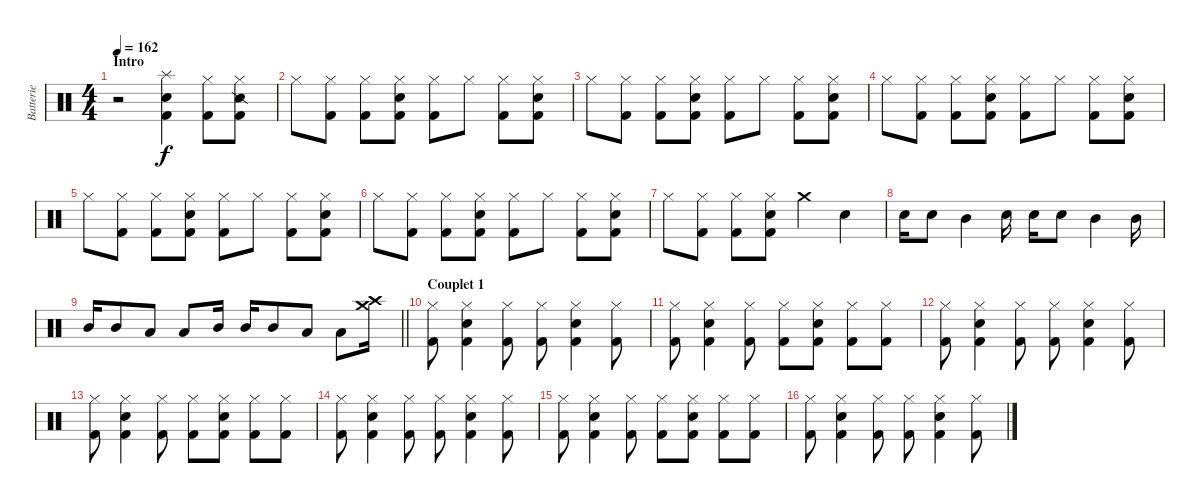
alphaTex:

\track ("Batterie" "Batterie") {instrument percussion}
\staff {score}
\articulation defaults
\ts (4 4)
\section ("" "Intro")
\tempo 162
\clef neutral
\ks c
r.2{dy f} ("Kick (hit) 2" "Snare (hit) 2" "Splash (hit)").4 ("Kick (hit) 2" "Hi-Hat (closed)").8 ("Kick (hit) 2" "Snare (side stick) 2" "Hi-Hat (closed)").8 |
"Hi-Hat (closed)".8 ("Kick (hit) 2" "Hi-Hat (closed)").8 ("Kick (hit) 2" "Hi-Hat (closed)").8 ("Kick (hit) 2" "Snare (hit) 2" "Hi-Hat (closed)").8 ("Kick (hit) 2" "Hi-Hat (closed)").8 "Hi-Hat (closed)".8 ("Kick (hit) 2" "Hi-Hat (closed)").8 ("Kick (hit) 2" "Snare (hit) 2" "Hi-Hat (closed)").8 |
"Hi-Hat (closed)".8 ("Kick (hit) 2" "Hi-Hat (closed)").8 ("Kick (hit) 2" "Hi-Hat (closed)").8 ("Kick (hit) 2" "Snare (hit) 2" "Hi-Hat (closed)").8 ("Kick (hit) 2" "Hi-Hat (closed)").8 "Hi-Hat (closed)".8 ("Kick (hit) 2" "Hi-Hat (closed)").8 ("Kick (hit) 2" "Snare (hit) 2" "Hi-Hat (closed)").8 |
"Hi-Hat (closed)".8 ("Kick (hit) 2" "Hi-Hat (closed)").8 ("Kick (hit) 2" "Hi-Hat (closed)").8 ("Kick (hit) 2" "Snare (hit) 2" "Hi-Hat (closed)").8 ("Kick (hit) 2" "Hi-Hat (closed)").8 "Hi-Hat (closed)".8 ("Kick (hit) 2" "Hi-Hat (closed)").8 ("Kick (hit) 2" "Snare (hit) 2" "Hi-Hat (closed)").8 |
"Hi-Hat (closed)".8 ("Kick (hit) 2" "Hi-Hat (closed)").8 ("Kick (hit) 2" "Hi-Hat (closed)").8 ("Kick (hit) 2" "Snare (hit) 2" "Hi-Hat (closed)").8 ("Kick (hit) 2" "Hi-Hat (closed)").8 "Hi-Hat (closed)".8 ("Kick (hit) 2" "Hi-Hat (closed)").8 ("Kick (hit) 2" "Snare (hit) 2" "Hi-Hat (closed)").8 |
"Hi-Hat (closed)".8 ("Kick (hit) 2" "Hi-Hat (closed)").8 ("Kick (hit) 2" "Hi-Hat (closed)").8 ("Kick (hit) 2" "Snare (hit) 2" "Hi-Hat (closed)").8 ("Kick (hit) 2" "Hi-Hat (closed)").8 "Hi-Hat (closed)".8 ("Kick (hit) 2" "Hi-Hat (closed)").8 ("Kick (hit) 2" "Snare (hit) 2" "Hi-Hat (closed)").8 |
"Hi-Hat (closed)".8 ("Kick (hit) 2" "Hi-Hat (closed)").8 ("Kick (hit) 2" "Hi-Hat (closed)").8 ("Kick (hit) 2" "Snare (hit) 2" "Hi-Hat (closed)").8 "Crash medium (hit)".4 "Snare (hit) 2".4 |
"Snare (hit) 2".16 "Snare (hit) 2".8 "Mid Tom (hit)".4 "Snare (hit) 2".16 "Snare (hit) 2".16 "Snare (hit) 2".8 "Mid Tom (hit)".4 "Mid Tom (hit)".16 |
\barLineRight lightlight "Mid Tom (hit)".16 "Mid Tom (hit)".8 "Low Tom (hit)".8 "Low Tom (hit)".8 "Mid Tom (hit)".16 "Mid Tom (hit)".16 "Mid Tom (hit)".8 "Low Tom (hit)".8 "Low Tom (hit)".8
("Crash medium (hit)" "Crash high (hit)").16 |
\section ("" "Couplet 1")
("Kick (hit) 2" "Hi-Hat (closed)").8 ("Kick (hit) 2" "Snare (hit) 2" "Hi-Hat (closed)").4 ("Kick (hit) 2" "Hi-Hat (closed)").8 ("Kick (hit) 2" "Hi-Hat (closed)").8 ("Kick (hit) 2" "Snare (hit) 2" "Hi-Hat (closed)").4 ("Kick (hit) 2" "Hi-Hat (closed)").8 |
("Kick (hit) 2" "Hi-Hat (closed)").8 ("Kick (hit) 2" "Snare (hit) 2" "Hi-Hat (closed)").4 ("Kick (hit) 2" "Hi-Hat (closed)").8 ("Kick (hit) 2" "Hi-Hat (closed)").8 ("Kick (hit) 2" "Snare (hit) 2" "Hi-Hat (closed)").8 ("Kick (hit) 2" "Hi-Hat (closed)").8 ("Kick (hit) 2" "Hi-Hat (closed)").8 |
("Kick (hit) 2" "Hi-Hat (closed)").8 ("Kick (hit) 2" "Snare (hit) 2" "Hi-Hat (closed)").4 ("Kick (hit) 2" "Hi-Hat (closed)").8 ("Kick (hit) 2" "Hi-Hat (closed)").8 ("Kick (hit) 2" "Snare (hit) 2" "Hi-Hat (closed)").4 ("Kick (hit) 2" "Hi-Hat (closed)").8 |
("Kick (hit) 2" "Hi-Hat (closed)").8 ("Kick (hit) 2" "Snare (hit) 2" "Hi-Hat (closed)").4 ("Kick (hit) 2" "Hi-Hat (closed)").8 ("Kick (hit) 2" "Hi-Hat (closed)").8 ("Kick (hit) 2" "Snare (hit) 2" "Hi-Hat (closed)").8 ("Kick (hit) 2" "Hi-Hat (closed)").8 ("Kick (hit) 2" "Hi-Hat (closed)").8 |
("Kick (hit) 2" "Hi-Hat (closed)").8 ("Kick (hit) 2" "Snare (hit) 2" "Hi-Hat (closed)").4 ("Kick (hit) 2" "Hi-Hat (closed)").8 ("Kick (hit) 2" "Hi-Hat (closed)").8 ("Kick (hit) 2" "Snare (hit) 2" "Hi-Hat (closed)").4 ("Kick (hit) 2" "Hi-Hat (closed)").8 |
("Kick (hit) 2" "Hi-Hat (closed)").8 ("Kick (hit) 2" "Snare (hit) 2" "Hi-Hat (closed)").4 ("Kick (hit) 2" "Hi-Hat (closed)").8 ("Kick (hit) 2" "Hi-Hat (closed)").8 ("Kick (hit) 2" "Snare (hit) 2" "Hi-Hat (closed)").8 ("Kick (hit) 2" "Hi-Hat (closed)").8 ("Kick (hit) 2" "Hi-Hat (closed)").8 |
("Kick (hit) 2" "Hi-Hat (closed)").8 ("Kick (hit) 2" "Snare (hit) 2" "Hi-Hat (closed)").4 ("Kick (hit) 2" "Hi-Hat (closed)").8 ("Kick (hit) 2" "Hi-Hat (closed)").8 ("Kick (hit) 2" "Snare (hit) 2" "Hi-Hat (closed)").4 ("Kick (hit) 2" "Hi-Hat (closed)").8
